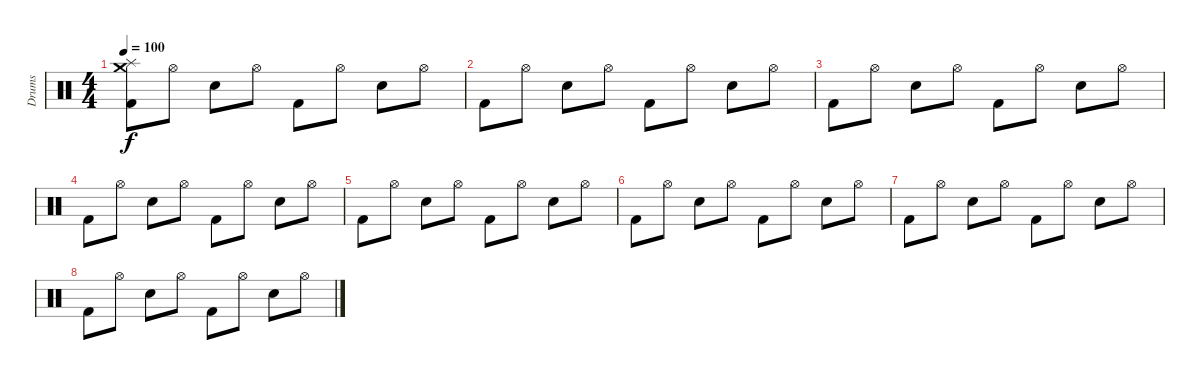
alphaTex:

\track ("Drums" "Drums") {instrument percussion}
\staff {score}
\articulation defaults
\ts (4 4)
\tempo 100
\clef neutral
\ks c
("Splash (hit)" "Crash medium (hit)" "Kick (hit) 2").8{dy f} "Hi-Hat (open)".8 "Snare (hit) 2".8 "Hi-Hat (open)".8 "Kick (hit) 2".8 "Hi-Hat (open)".8 "Snare (hit) 2".8 "Hi-Hat (open)".8 |
"Kick (hit) 2".8 "Hi-Hat (open)".8 "Snare (hit) 2".8 "Hi-Hat (open)".8 "Kick (hit) 2".8 "Hi-Hat (open)".8 "Snare (hit) 2".8 "Hi-Hat (open)".8 |
"Kick (hit) 2".8 "Hi-Hat (open)".8 "Snare (hit) 2".8 "Hi-Hat (open)".8 "Kick (hit) 2".8 "Hi-Hat (open)".8 "Snare (hit) 2".8 "Hi-Hat (open)".8 |
"Kick (hit) 2".8 "Hi-Hat (open)".8 "Snare (hit) 2".8 "Hi-Hat (open)".8 "Kick (hit) 2".8 "Hi-Hat (open)".8 "Snare (hit) 2".8 "Hi-Hat (open)".8 |
"Kick (hit) 2".8 "Hi-Hat (open)".8 "Snare (hit) 2".8 "Hi-Hat (open)".8 "Kick (hit) 2".8 "Hi-Hat (open)".8 "Snare (hit) 2".8 "Hi-Hat (open)".8 |
"Kick (hit) 2".8 "Hi-Hat (open)".8 "Snare (hit) 2".8 "Hi-Hat (open)".8 "Kick (hit) 2".8 "Hi-Hat (open)".8 "Snare (hit) 2".8 "Hi-Hat (open)".8 |
"Kick (hit) 2".8 "Hi-Hat (open)".8 "Snare (hit) 2".8 "Hi-Hat (open)".8 "Kick (hit) 2".8 "Hi-Hat (open)".8 "Snare (hit) 2".8 "Hi-Hat (open)".8 |
"Kick (hit) 2".8 "Hi-Hat (open)".8 "Snare (hit) 2".8 "Hi-Hat (open)".8 "Kick (hit) 2".8 "Hi-Hat (open)".8 "Snare (hit) 2".8 "Hi-Hat (open)".8
